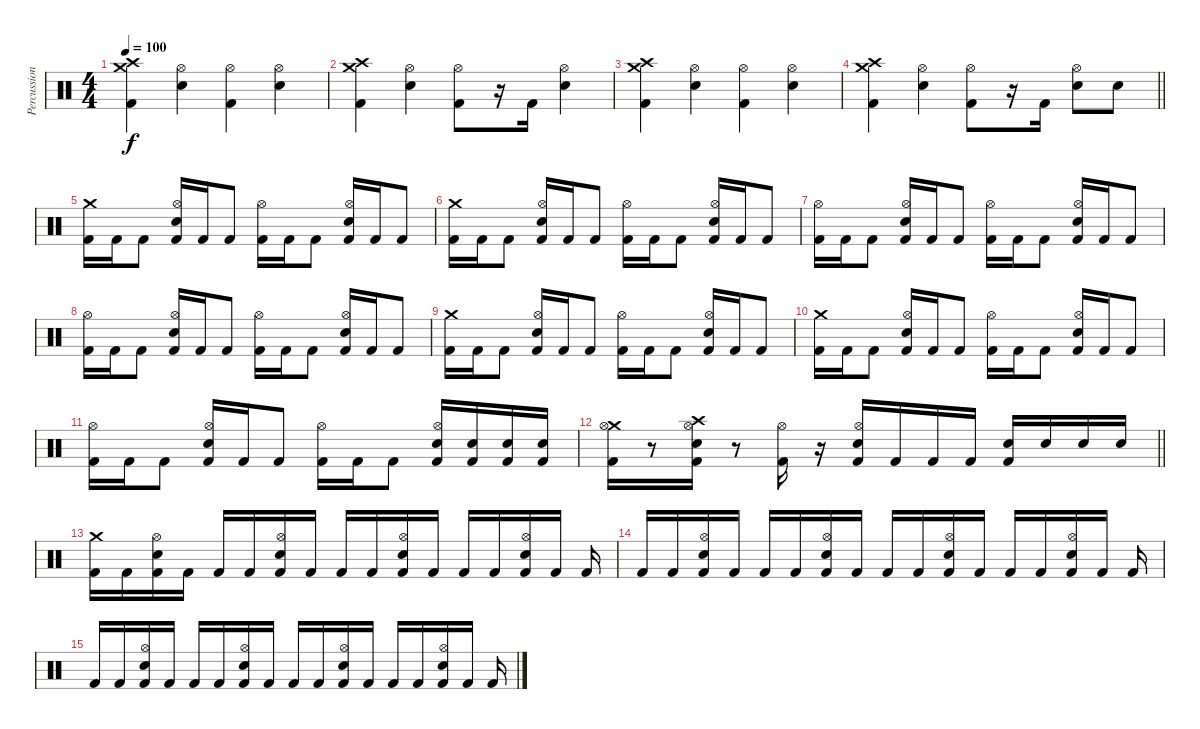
\track ("Percussion" "Percussion") {instrument percussion}
\staff {score}
\articulation defaults
\ts (4 4)
\tempo 100
\clef neutral
\ks c
("Crash medium (hit)" "Crash high (hit)" "Kick (hit) 2").4{dy f} ("Hi-Hat (open)" "Electric Snare (hit)").4 ("Hi-Hat (open)" "Kick (hit) 2").4 ("Hi-Hat (open)" "Electric Snare (hit)").4 |
("Crash medium (hit)" "Crash high (hit)" "Kick (hit) 2").4 ("Hi-Hat (open)" "Electric Snare (hit)").4 ("Hi-Hat (open)" "Kick (hit) 2").8 r.16 "Kick (hit) 2".16 ("Hi-Hat (open)" "Electric Snare (hit)").4 |
("Crash medium (hit)" "Crash high (hit)" "Kick (hit) 2").4 ("Hi-Hat (open)" "Electric Snare (hit)").4 ("Hi-Hat (open)" "Kick (hit) 2").4 ("Hi-Hat (open)" "Electric Snare (hit)").4 |
\barLineRight lightlight
("Crash medium (hit)" "Crash high (hit)" "Kick (hit) 2").4 ("Hi-Hat (open)" "Electric Snare (hit)").4 ("Hi-Hat (open)" "Kick (hit) 2").8 r.16 "Kick (hit) 2".16 ("Hi-Hat (open)" "Electric Snare (hit)").8 "Electric Snare (hit)".8 |
("Crash medium (hit)" "Kick (hit) 2").16 "Kick (hit) 2".16 "Kick (hit) 2".8 ("Hi-Hat (open)" "Electric Snare (hit)" "Kick (hit) 2").16 "Kick (hit) 2".16 "Kick (hit) 2".8 ("Hi-Hat (open)" "Kick (hit) 2").16 "Kick (hit) 2".16 "Kick (hit) 2".8 ("Hi-Hat (open)" "Electric Snare (hit)" "Kick (hit) 2").16 "Kick (hit) 2".16 "Kick (hit) 2".8 |
("Crash medium (hit)" "Kick (hit) 2").16 "Kick (hit) 2".16 "Kick (hit) 2".8 ("Hi-Hat (open)" "Electric Snare (hit)" "Kick (hit) 2").16 "Kick (hit) 2".16 "Kick (hit) 2".8 ("Hi-Hat (open)" "Kick (hit) 2").16 "Kick (hit) 2".16 "Kick (hit) 2".8 ("Hi-Hat (open)" "Electric Snare (hit)" "Kick (hit) 2").16 "Kick (hit) 2".16 "Kick (hit) 2".8 |
("Hi-Hat (open)" "Kick (hit) 2").16 "Kick (hit) 2".16 "Kick (hit) 2".8 ("Hi-Hat (open)" "Electric Snare (hit)" "Kick (hit) 2").16 "Kick (hit) 2".16 "Kick (hit) 2".8 ("Hi-Hat (open)" "Kick (hit) 2").16 "Kick (hit) 2".16 "Kick (hit) 2".8 ("Hi-Hat (open)" "Electric Snare (hit)" "Kick (hit) 2").16 "Kick (hit) 2".16 "Kick (hit) 2".8 |
("Hi-Hat (open)" "Kick (hit) 2").16 "Kick (hit) 2".16 "Kick (hit) 2".8 ("Hi-Hat (open)" "Electric Snare (hit)" "Kick (hit) 2").16 "Kick (hit) 2".16 "Kick (hit) 2".8 ("Hi-Hat (open)" "Kick (hit) 2").16 "Kick (hit) 2".16 "Kick (hit) 2".8 ("Hi-Hat (open)" "Electric Snare (hit)" "Kick (hit) 2").16 "Kick (hit) 2".16 "Kick (hit) 2".8 |
("Crash medium (hit)" "Kick (hit) 2").16 "Kick (hit) 2".16 "Kick (hit) 2".8 ("Hi-Hat (open)" "Electric Snare (hit)" "Kick (hit) 2").16 "Kick (hit) 2".16 "Kick (hit) 2".8 ("Hi-Hat (open)" "Kick (hit) 2").16 "Kick (hit) 2".16 "Kick (hit) 2".8 ("Hi-Hat (open)" "Electric Snare (hit)" "Kick (hit) 2").16 "Kick (hit) 2".16 "Kick (hit) 2".8 |
("Crash medium (hit)" "Kick (hit) 2").16 "Kick (hit) 2".16 "Kick (hit) 2".8 ("Hi-Hat (open)" "Electric Snare (hit)" "Kick (hit) 2").16 "Kick (hit) 2".16 "Kick (hit) 2".8 ("Hi-Hat (open)" "Kick (hit) 2").16 "Kick (hit) 2".16 "Kick (hit) 2".8 ("Hi-Hat (open)" "Electric Snare (hit)" "Kick (hit) 2").16 "Kick (hit) 2".16 "Kick (hit) 2".8 |
("Hi-Hat (open)" "Kick (hit) 2").16 "Kick (hit) 2".16 "Kick (hit) 2".8 ("Hi-Hat (open)" "Electric Snare (hit)" "Kick (hit) 2").16 "Kick (hit) 2".16 "Kick (hit) 2".8 ("Hi-Hat (open)" "Kick (hit) 2").16 "Kick (hit) 2".16 "Kick (hit) 2".8 ("Hi-Hat (open)" "Electric Snare (hit)" "Kick (hit) 2").16 ("Electric Snare (hit)" "Kick (hit) 2").16 ("Electric Snare (hit)" "Kick (hit) 2").16 ("Electric Snare (hit)" "Kick (hit) 2").16 |
\barLineRight lightlight
("Crash medium (hit)" "Hi-Hat (open)" "Kick (hit) 2").16 r.8 ("Crash high (hit)" "Hi-Hat (open)" "Electric Snare (hit)" "Kick (hit) 2").16 r.8 ("Hi-Hat (open)" "Kick (hit) 2").16 r.16 ("Hi-Hat (open)" "Electric Snare (hit)" "Kick (hit) 2").16 "Kick (hit) 2".16 "Kick (hit) 2".16 "Kick (hit) 2".16 ("Electric Snare (hit)" "Kick (hit) 2").16 "Electric Snare (hit)".16 "Electric Snare (hit)".16 "Electric Snare (hit)".16 |
("Crash medium (hit)" "Kick (hit) 2").16 "Kick (hit) 2".16 ("Hi-Hat (open)" "Electric Snare (hit)" "Kick (hit) 2").16 "Kick (hit) 2".16 "Kick (hit) 2".16 "Kick (hit) 2".16 ("Hi-Hat (open)" "Electric Snare (hit)" "Kick (hit) 2").16 "Kick (hit) 2".16 "Kick (hit) 2".16 "Kick (hit) 2".16 ("Hi-Hat (open)" "Electric Snare (hit)" "Kick (hit) 2").16 "Kick (hit) 2".16 "Kick (hit) 2".16 "Kick (hit) 2".16 ("Hi-Hat (open)" "Electric Snare (hit)" "Kick (hit) 2").16 "Kick (hit) 2".16 "Kick (hit) 2".16 |
"Kick (hit) 2".16 "Kick (hit) 2".16 ("Hi-Hat (open)" "Electric Snare (hit)" "Kick (hit) 2").16 "Kick (hit) 2".16 "Kick (hit) 2".16 "Kick (hit) 2".16 ("Hi-Hat (open)" "Electric Snare (hit)" "Kick (hit) 2").16 "Kick (hit) 2".16 "Kick (hit) 2".16 "Kick (hit) 2".16 ("Hi-Hat (open)" "Electric Snare (hit)" "Kick (hit) 2").16 "Kick (hit) 2".16 "Kick (hit) 2".16 "Kick (hit) 2".16 ("Hi-Hat (open)" "Electric Snare (hit)" "Kick (hit) 2").16 "Kick (hit) 2".16 "Kick (hit) 2".16 |
"Kick (hit) 2".16 "Kick (hit) 2".16 ("Hi-Hat (open)" "Electric Snare (hit)" "Kick (hit) 2").16 "Kick (hit) 2".16 "Kick (hit) 2".16 "Kick (hit) 2".16 ("Hi-Hat (open)" "Electric Snare (hit)" "Kick (hit) 2").16 "Kick (hit) 2".16 "Kick (hit) 2".16 "Kick (hit) 2".16 ("Hi-Hat (open)" "Electric Snare (hit)" "Kick (hit) 2").16 "Kick (hit) 2".16 "Kick (hit) 2".16 "Kick (hit) 2".16 ("Hi-Hat (open)" "Electric Snare (hit)" "Kick (hit) 2").16 "Kick (hit) 2".16 "Kick (hit) 2".16
